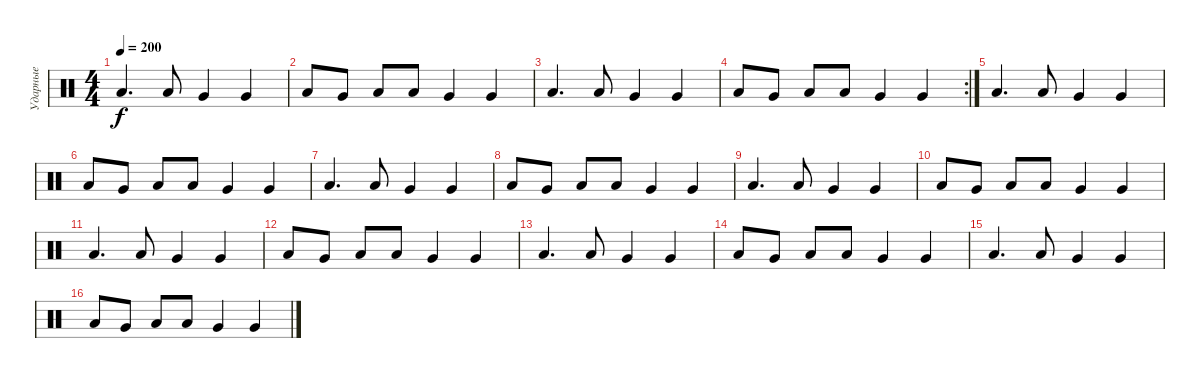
\track ("Ударные" "Ударные") {instrument percussion}
\staff {score}
\articulation defaults
\ts (4 4)
\tempo 200
\clef neutral
\ks c "Low Floor Tom (hit)".4{d dy f} "Low Floor Tom (hit)".8 "Very Low Tom (hit)".4 "Very Low Tom (hit)".4
|
"Low Floor Tom (hit)".8 "Very Low Tom (hit)".8 "Low Floor Tom (hit)".8 "Low Floor Tom (hit)".8 "Very Low Tom (hit)".4 "Very Low Tom (hit)".4 |
"Low Floor Tom (hit)".4{d} "Low Floor Tom (hit)".8 "Very Low Tom (hit)".4 "Very Low Tom (hit)".4 |
\rc 2 "Low Floor Tom (hit)".8 "Very Low Tom (hit)".8 "Low Floor Tom (hit)".8 "Low Floor Tom (hit)".8 "Very Low Tom (hit)".4 "Very Low Tom (hit)".4
|
"Low Floor Tom (hit)".4{d} "Low Floor Tom (hit)".8 "Very Low Tom (hit)".4 "Very Low Tom (hit)".4 |
"Low Floor Tom (hit)".8 "Very Low Tom (hit)".8 "Low Floor Tom (hit)".8 "Low Floor Tom (hit)".8 "Very Low Tom (hit)".4 "Very Low Tom (hit)".4 |
"Low Floor Tom (hit)".4{d} "Low Floor Tom (hit)".8 "Very Low Tom (hit)".4 "Very Low Tom (hit)".4 |
"Low Floor Tom (hit)".8 "Very Low Tom (hit)".8 "Low Floor Tom (hit)".8 "Low Floor Tom (hit)".8 "Very Low Tom (hit)".4 "Very Low Tom (hit)".4 |
"Low Floor Tom (hit)".4{d} "Low Floor Tom (hit)".8 "Very Low Tom (hit)".4 "Very Low Tom (hit)".4 |
"Low Floor Tom (hit)".8 "Very Low Tom (hit)".8 "Low Floor Tom (hit)".8 "Low Floor Tom (hit)".8 "Very Low Tom (hit)".4 "Very Low Tom (hit)".4 |
"Low Floor Tom (hit)".4{d} "Low Floor Tom (hit)".8 "Very Low Tom (hit)".4 "Very Low Tom (hit)".4 |
"Low Floor Tom (hit)".8 "Very Low Tom (hit)".8 "Low Floor Tom (hit)".8 "Low Floor Tom (hit)".8 "Very Low Tom (hit)".4 "Very Low Tom (hit)".4 |
"Low Floor Tom (hit)".4{d} "Low Floor Tom (hit)".8 "Very Low Tom (hit)".4 "Very Low Tom (hit)".4 |
"Low Floor Tom (hit)".8 "Very Low Tom (hit)".8 "Low Floor Tom (hit)".8 "Low Floor Tom (hit)".8 "Very Low Tom (hit)".4 "Very Low Tom (hit)".4 |
"Low Floor Tom (hit)".4{d} "Low Floor Tom (hit)".8 "Very Low Tom (hit)".4 "Very Low Tom (hit)".4 |
"Low Floor Tom (hit)".8 "Very Low Tom (hit)".8 "Low Floor Tom (hit)".8 "Low Floor Tom (hit)".8 "Very Low Tom (hit)".4 "Very Low Tom (hit)".4
